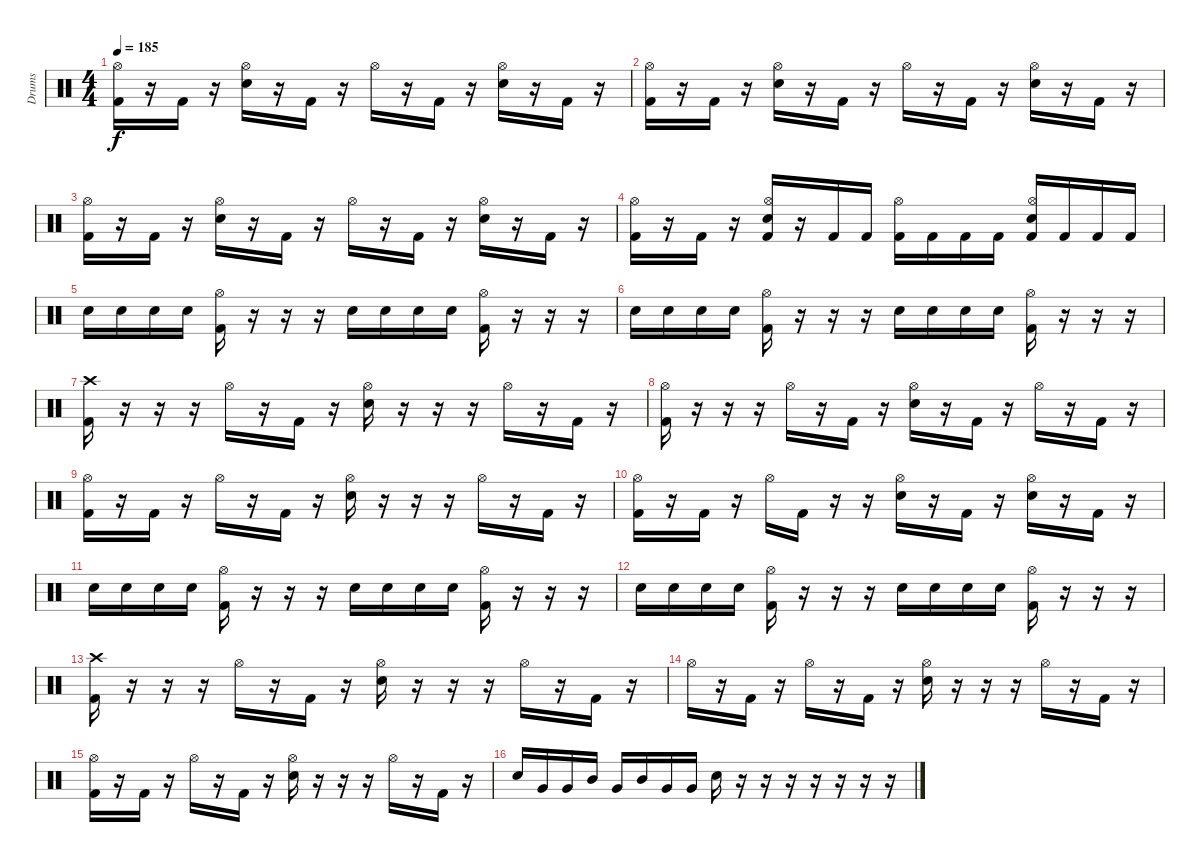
\track ("Drums" "Drums") {instrument percussion}
\staff {score}
\articulation defaults
\ts (4 4)
\tempo 185
\clef neutral
\ks c
("Kick (hit) 2" "Hi-Hat (open)").16{dy f} r.16 "Kick (hit) 2".16 r.16 ("Electric Snare (hit)" "Hi-Hat (open)").16 r.16 "Kick (hit) 2".16 r.16 "Hi-Hat (open)".16 r.16 "Kick (hit) 2".16 r.16 ("Electric Snare (hit)" "Hi-Hat (open)").16 r.16 "Kick (hit) 2".16 r.16 |
("Kick (hit) 2" "Hi-Hat (open)").16 r.16 "Kick (hit) 2".16 r.16 ("Electric Snare (hit)" "Hi-Hat (open)").16 r.16 "Kick (hit) 2".16 r.16 "Hi-Hat (open)".16 r.16 "Kick (hit) 2".16 r.16 ("Electric Snare (hit)" "Hi-Hat (open)").16 r.16 "Kick (hit) 2".16 r.16 |
("Kick (hit) 2" "Hi-Hat (open)").16 r.16 "Kick (hit) 2".16 r.16 ("Electric Snare (hit)" "Hi-Hat (open)").16 r.16 "Kick (hit) 2".16 r.16 "Hi-Hat (open)".16 r.16 "Kick (hit) 2".16 r.16 ("Electric Snare (hit)" "Hi-Hat (open)").16 r.16 "Kick (hit) 2".16 r.16 |
("Kick (hit) 2" "Hi-Hat (open)").16 r.16 "Kick (hit) 2".16 r.16 ("Kick (hit) 2" "Electric Snare (hit)" "Hi-Hat (open)").16 r.16 "Kick (hit) 2".16 "Kick (hit) 2".16 ("Kick (hit) 2" "Hi-Hat (open)").16 "Kick (hit) 2".16 "Kick (hit) 2".16 "Kick (hit) 2".16 ("Kick (hit) 2" "Electric Snare (hit)" "Hi-Hat (open)").16 "Kick (hit) 2".16 "Kick (hit) 2".16 "Kick (hit) 2".16 |
"Electric Snare (hit)".16 "Electric Snare (hit)".16 "Electric Snare (hit)".16 "Electric Snare (hit)".16 ("Kick (hit) 2" "Hi-Hat (open)").16 r.16 r.16 r.16 "Electric Snare (hit)".16 "Electric Snare (hit)".16 "Electric Snare (hit)".16 "Electric Snare (hit)".16 ("Kick (hit) 2" "Hi-Hat (open)").16 r.16 r.16 r.16 |
"Electric Snare (hit)".16 "Electric Snare (hit)".16 "Electric Snare (hit)".16 "Electric Snare (hit)".16 ("Kick (hit) 2" "Hi-Hat (open)").16 r.16 r.16 r.16 "Electric Snare (hit)".16 "Electric Snare (hit)".16 "Electric Snare (hit)".16 "Electric Snare (hit)".16 ("Kick (hit) 2" "Hi-Hat (open)").16 r.16 r.16 r.16 |
("Kick (hit) 2" "Crash high (hit)").16 r.16 r.16 r.16 "Hi-Hat (open)".16 r.16 "Kick (hit) 2".16 r.16 ("Electric Snare (hit)" "Hi-Hat (open)").16 r.16 r.16 r.16 "Hi-Hat (open)".16 r.16 "Kick (hit) 2".16 r.16 |
("Kick (hit) 2" "Hi-Hat (open)").16 r.16 r.16 r.16 "Hi-Hat (open)".16 r.16 "Kick (hit) 2".16 r.16 ("Electric Snare (hit)" "Hi-Hat (open)").16 r.16 "Kick (hit) 2".16 r.16 "Hi-Hat (open)".16 r.16 "Kick (hit) 2".16 r.16 |
("Kick (hit) 2" "Hi-Hat (open)").16 r.16 "Kick (hit) 2".16 r.16 "Hi-Hat (open)".16 r.16 "Kick (hit) 2".16 r.16 ("Electric Snare (hit)" "Hi-Hat (open)").16 r.16 r.16 r.16 "Hi-Hat (open)".16 r.16 "Kick (hit) 2".16 r.16 |
("Kick (hit) 2" "Hi-Hat (open)").16 r.16 "Kick (hit) 2".16 r.16 "Hi-Hat (open)".16 "Kick (hit) 2".16 r.16 r.16 ("Electric Snare (hit)" "Hi-Hat (open)").16 r.16 "Kick (hit) 2".16 r.16 ("Electric Snare (hit)" "Hi-Hat (open)").16 r.16 "Kick (hit) 2".16 r.16 |
"Electric Snare (hit)".16 "Electric Snare (hit)".16 "Electric Snare (hit)".16 "Electric Snare (hit)".16 ("Kick (hit) 2" "Hi-Hat (open)").16 r.16 r.16 r.16 "Electric Snare (hit)".16 "Electric Snare (hit)".16 "Electric Snare (hit)".16 "Electric Snare (hit)".16 ("Kick (hit) 2" "Hi-Hat (open)").16 r.16 r.16 r.16 |
"Electric Snare (hit)".16 "Electric Snare (hit)".16 "Electric Snare (hit)".16 "Electric Snare (hit)".16 ("Kick (hit) 2" "Hi-Hat (open)").16 r.16 r.16 r.16 "Electric Snare (hit)".16 "Electric Snare (hit)".16 "Electric Snare (hit)".16 "Electric Snare (hit)".16 ("Kick (hit) 2" "Hi-Hat (open)").16 r.16 r.16 r.16 |
("Kick (hit) 2" "Crash high (hit)").16 r.16 r.16 r.16 "Hi-Hat (open)".16 r.16 "Kick (hit) 2".16 r.16 ("Electric Snare (hit)" "Hi-Hat (open)").16 r.16 r.16 r.16 "Hi-Hat (open)".16 r.16 "Kick (hit) 2".16 r.16 |
"Hi-Hat (open)".16 r.16 "Kick (hit) 2".16 r.16 "Hi-Hat (open)".16 r.16 "Kick (hit) 2".16 r.16 ("Electric Snare (hit)" "Hi-Hat (open)").16 r.16 r.16 r.16 "Hi-Hat (open)".16 r.16 "Kick (hit) 2".16 r.16 |
("Kick (hit) 2" "Hi-Hat (open)").16 r.16 "Kick (hit) 2".16 r.16 "Hi-Hat (open)".16 r.16 "Kick (hit) 2".16 r.16 ("Electric Snare (hit)" "Hi-Hat (open)").16 r.16 r.16 r.16 "Hi-Hat (open)".16 r.16 "Kick (hit) 2".16 r.16 |
"Electric Snare (hit)".16 "Very Low Tom (hit)".16 "Very Low Tom (hit)".16 "Mid Tom (hit)".16 "Very Low Tom (hit)".16 "Mid Tom (hit)".16 "Very Low Tom (hit)".16 "Very Low Tom (hit)".16 "Electric Snare (hit)".16 r.16 r.16 r.16 r.16 r.16 r.16 r.16
